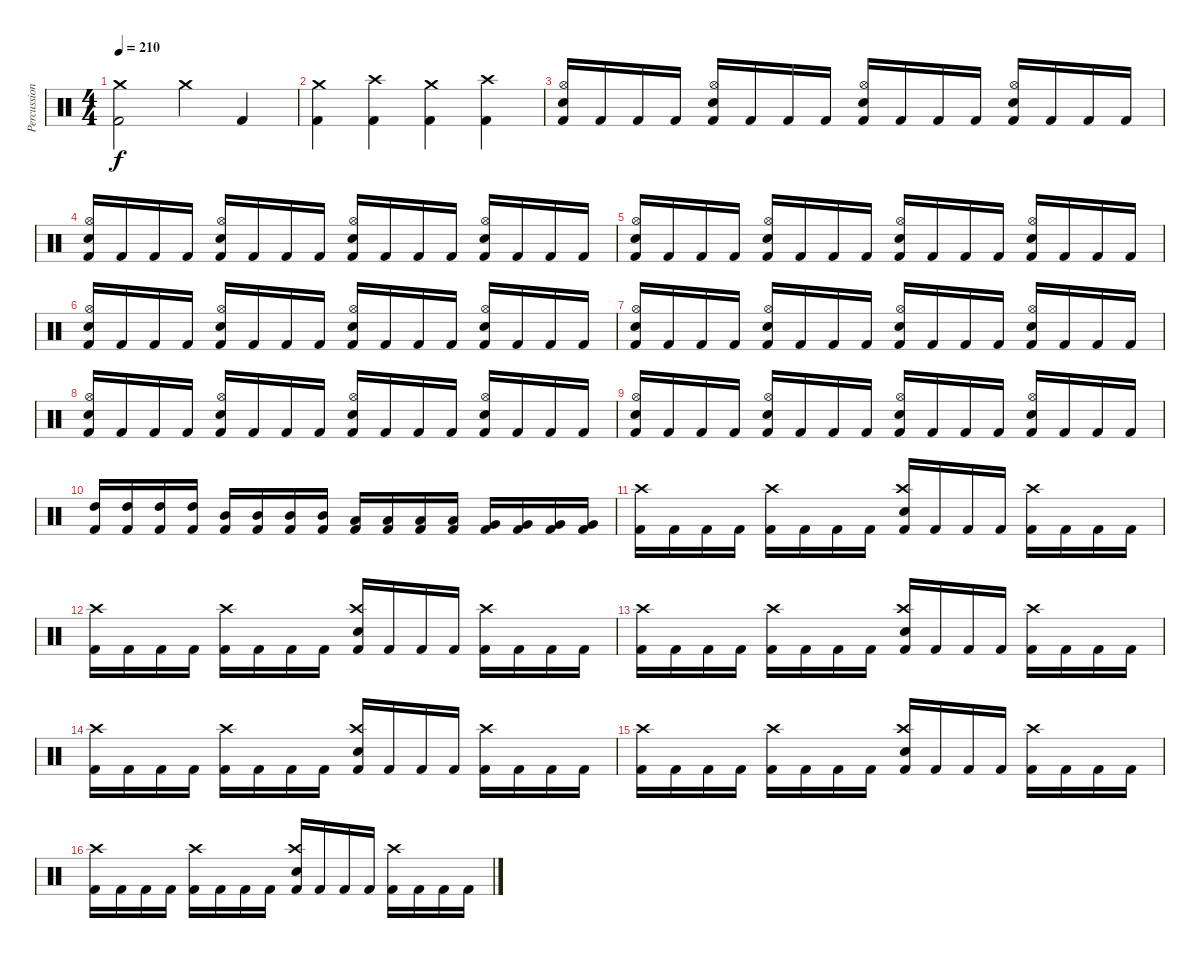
\track ("Percussion" "Percussion") {instrument percussion}
\staff {score}
\articulation defaults
\ts (4 4)
\tempo 210
\clef neutral
\ks c
("Crash medium (hit)" "Kick (hit) 2").2{dy f} "Crash medium (hit)".4 "Kick (hit) 2".4 |
("Crash medium (hit)" "Kick (hit) 2").4 ("Crash high (hit)" "Kick (hit) 2").4 ("Crash medium (hit)" "Kick (hit) 2").4 ("Crash high (hit)" "Kick (hit) 2").4 |
("Hi-Hat (open)" "Electric Snare (hit)" "Kick (hit) 2").16 "Kick (hit) 2".16 "Kick (hit) 2".16 "Kick (hit) 2".16 ("Hi-Hat (open)" "Electric Snare (hit)" "Kick (hit) 2").16 "Kick (hit) 2".16 "Kick (hit) 2".16 "Kick (hit) 2".16 ("Hi-Hat (open)" "Electric Snare (hit)" "Kick (hit) 2").16 "Kick (hit) 2".16 "Kick (hit) 2".16 "Kick (hit) 2".16 ("Hi-Hat (open)" "Electric Snare (hit)" "Kick (hit) 2").16 "Kick (hit) 2".16 "Kick (hit) 2".16 "Kick (hit) 2".16 |
("Hi-Hat (open)" "Electric Snare (hit)" "Kick (hit) 2").16 "Kick (hit) 2".16 "Kick (hit) 2".16 "Kick (hit) 2".16 ("Hi-Hat (open)" "Electric Snare (hit)" "Kick (hit) 2").16 "Kick (hit) 2".16 "Kick (hit) 2".16 "Kick (hit) 2".16 ("Hi-Hat (open)" "Electric Snare (hit)" "Kick (hit) 2").16 "Kick (hit) 2".16 "Kick (hit) 2".16 "Kick (hit) 2".16 ("Hi-Hat (open)" "Electric Snare (hit)" "Kick (hit) 2").16 "Kick (hit) 2".16 "Kick (hit) 2".16 "Kick (hit) 2".16 |
("Hi-Hat (open)" "Electric Snare (hit)" "Kick (hit) 2").16 "Kick (hit) 2".16 "Kick (hit) 2".16 "Kick (hit) 2".16 ("Hi-Hat (open)" "Electric Snare (hit)" "Kick (hit) 2").16 "Kick (hit) 2".16 "Kick (hit) 2".16 "Kick (hit) 2".16 ("Hi-Hat (open)" "Electric Snare (hit)" "Kick (hit) 2").16 "Kick (hit) 2".16 "Kick (hit) 2".16 "Kick (hit) 2".16 ("Hi-Hat (open)" "Electric Snare (hit)" "Kick (hit) 2").16 "Kick (hit) 2".16 "Kick (hit) 2".16 "Kick (hit) 2".16 |
("Hi-Hat (open)" "Electric Snare (hit)" "Kick (hit) 2").16 "Kick (hit) 2".16 "Kick (hit) 2".16 "Kick (hit) 2".16 ("Hi-Hat (open)" "Electric Snare (hit)" "Kick (hit) 2").16 "Kick (hit) 2".16 "Kick (hit) 2".16 "Kick (hit) 2".16 ("Hi-Hat (open)" "Electric Snare (hit)" "Kick (hit) 2").16 "Kick (hit) 2".16 "Kick (hit) 2".16 "Kick (hit) 2".16 ("Hi-Hat (open)" "Electric Snare (hit)" "Kick (hit) 2").16 "Kick (hit) 2".16 "Kick (hit) 2".16 "Kick (hit) 2".16 |
("Hi-Hat (open)" "Electric Snare (hit)" "Kick (hit) 2").16 "Kick (hit) 2".16 "Kick (hit) 2".16 "Kick (hit) 2".16 ("Hi-Hat (open)" "Electric Snare (hit)" "Kick (hit) 2").16 "Kick (hit) 2".16 "Kick (hit) 2".16 "Kick (hit) 2".16 ("Hi-Hat (open)" "Electric Snare (hit)" "Kick (hit) 2").16 "Kick (hit) 2".16 "Kick (hit) 2".16 "Kick (hit) 2".16 ("Hi-Hat (open)" "Electric Snare (hit)" "Kick (hit) 2").16 "Kick (hit) 2".16 "Kick (hit) 2".16 "Kick (hit) 2".16 |
("Hi-Hat (open)" "Electric Snare (hit)" "Kick (hit) 2").16 "Kick (hit) 2".16 "Kick (hit) 2".16 "Kick (hit) 2".16 ("Hi-Hat (open)" "Electric Snare (hit)" "Kick (hit) 2").16 "Kick (hit) 2".16 "Kick (hit) 2".16 "Kick (hit) 2".16 ("Hi-Hat (open)" "Electric Snare (hit)" "Kick (hit) 2").16 "Kick (hit) 2".16 "Kick (hit) 2".16 "Kick (hit) 2".16 ("Hi-Hat (open)" "Electric Snare (hit)" "Kick (hit) 2").16 "Kick (hit) 2".16 "Kick (hit) 2".16 "Kick (hit) 2".16 |
("Hi-Hat (open)" "Electric Snare (hit)" "Kick (hit) 2").16 "Kick (hit) 2".16 "Kick (hit) 2".16 "Kick (hit) 2".16 ("Hi-Hat (open)" "Electric Snare (hit)" "Kick (hit) 2").16 "Kick (hit) 2".16 "Kick (hit) 2".16 "Kick (hit) 2".16 ("Hi-Hat (open)" "Electric Snare (hit)" "Kick (hit) 2").16 "Kick (hit) 2".16 "Kick (hit) 2".16 "Kick (hit) 2".16 ("Hi-Hat (open)" "Electric Snare (hit)" "Kick (hit) 2").16 "Kick (hit) 2".16 "Kick (hit) 2".16 "Kick (hit) 2".16 |
("High Tom (hit)" "Kick (hit) 2").16 ("High Tom (hit)" "Kick (hit) 2").16 ("High Tom (hit)" "Kick (hit) 2").16 ("High Tom (hit)" "Kick (hit) 2").16 ("Mid Tom (hit)" "Kick (hit) 2").16 ("Mid Tom (hit)" "Kick (hit) 2").16 ("Mid Tom (hit)" "Kick (hit) 2").16 ("Mid Tom (hit)" "Kick (hit) 2").16 ("Low Tom (hit)" "Kick (hit) 2").16 ("Low Tom (hit)" "Kick (hit) 2").16 ("Low Tom (hit)" "Kick (hit) 2").16 ("Low Tom (hit)" "Kick (hit) 2").16 ("Very Low Tom (hit)" "Kick (hit) 2").16 ("Very Low Tom (hit)" "Kick (hit) 2").16 ("Very Low Tom (hit)" "Kick (hit) 2").16 ("Very Low Tom (hit)" "Kick (hit) 2").16 |
("Crash high (hit)" "Kick (hit) 2").16 "Kick (hit) 2".16 "Kick (hit) 2".16 "Kick (hit) 2".16 ("Crash high (hit)" "Kick (hit) 2").16 "Kick (hit) 2".16 "Kick (hit) 2".16 "Kick (hit) 2".16 ("Crash high (hit)" "Electric Snare (hit)" "Kick (hit) 2").16 "Kick (hit) 2".16 "Kick (hit) 2".16 "Kick (hit) 2".16 ("Crash high (hit)" "Kick (hit) 2").16 "Kick (hit) 2".16 "Kick (hit) 2".16 "Kick (hit) 2".16 |
("Crash high (hit)" "Kick (hit) 2").16 "Kick (hit) 2".16 "Kick (hit) 2".16 "Kick (hit) 2".16 ("Crash high (hit)" "Kick (hit) 2").16 "Kick (hit) 2".16 "Kick (hit) 2".16 "Kick (hit) 2".16 ("Crash high (hit)" "Electric Snare (hit)" "Kick (hit) 2").16 "Kick (hit) 2".16 "Kick (hit) 2".16 "Kick (hit) 2".16 ("Crash high (hit)" "Kick (hit) 2").16 "Kick (hit) 2".16 "Kick (hit) 2".16 "Kick (hit) 2".16 |
("Crash high (hit)" "Kick (hit) 2").16 "Kick (hit) 2".16 "Kick (hit) 2".16 "Kick (hit) 2".16 ("Crash high (hit)" "Kick (hit) 2").16 "Kick (hit) 2".16 "Kick (hit) 2".16 "Kick (hit) 2".16 ("Crash high (hit)" "Electric Snare (hit)" "Kick (hit) 2").16 "Kick (hit) 2".16 "Kick (hit) 2".16 "Kick (hit) 2".16 ("Crash high (hit)" "Kick (hit) 2").16 "Kick (hit) 2".16 "Kick (hit) 2".16 "Kick (hit) 2".16 |
("Crash high (hit)" "Kick (hit) 2").16 "Kick (hit) 2".16 "Kick (hit) 2".16 "Kick (hit) 2".16 ("Crash high (hit)" "Kick (hit) 2").16 "Kick (hit) 2".16 "Kick (hit) 2".16 "Kick (hit) 2".16 ("Crash high (hit)" "Electric Snare (hit)" "Kick (hit) 2").16 "Kick (hit) 2".16 "Kick (hit) 2".16 "Kick (hit) 2".16 ("Crash high (hit)" "Kick (hit) 2").16 "Kick (hit) 2".16 "Kick (hit) 2".16 "Kick (hit) 2".16 |
("Crash high (hit)" "Kick (hit) 2").16 "Kick (hit) 2".16 "Kick (hit) 2".16 "Kick (hit) 2".16 ("Crash high (hit)" "Kick (hit) 2").16 "Kick (hit) 2".16 "Kick (hit) 2".16 "Kick (hit) 2".16 ("Crash high (hit)" "Electric Snare (hit)" "Kick (hit) 2").16 "Kick (hit) 2".16 "Kick (hit) 2".16 "Kick (hit) 2".16 ("Crash high (hit)" "Kick (hit) 2").16 "Kick (hit) 2".16 "Kick (hit) 2".16 "Kick (hit) 2".16 |
("Crash high (hit)" "Kick (hit) 2").16 "Kick (hit) 2".16 "Kick (hit) 2".16 "Kick (hit) 2".16 ("Crash high (hit)" "Kick (hit) 2").16 "Kick (hit) 2".16 "Kick (hit) 2".16 "Kick (hit) 2".16 ("Crash high (hit)" "Electric Snare (hit)" "Kick (hit) 2").16 "Kick (hit) 2".16 "Kick (hit) 2".16 "Kick (hit) 2".16 ("Crash high (hit)" "Kick (hit) 2").16 "Kick (hit) 2".16 "Kick (hit) 2".16 "Kick (hit) 2".16
